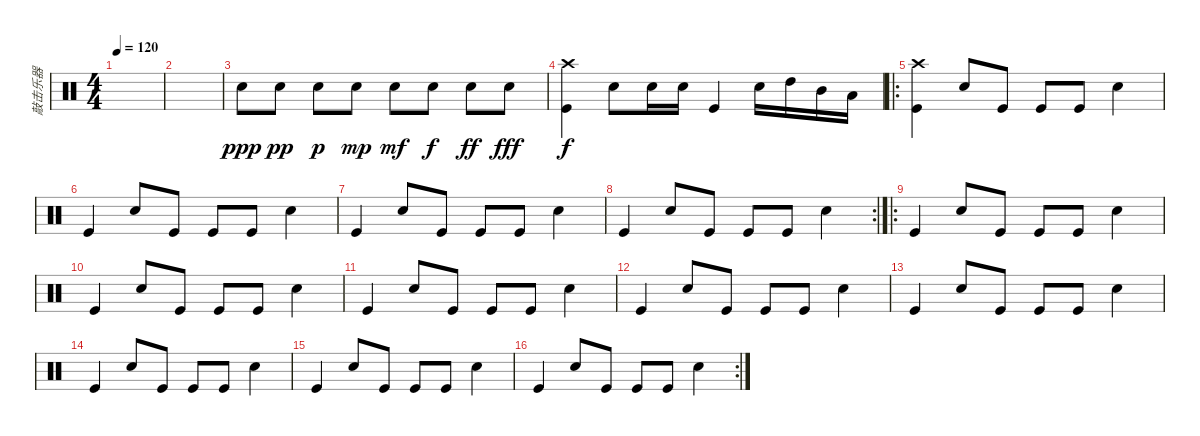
\track ("敲击乐器" "敲击乐器") {instrument percussion}
\staff {score}
\articulation defaults
\ts (4 4)
\tempo 120
\clef neutral
\ks c
|
|
"Snare (hit) 2".8{dy ppp} "Snare (hit) 2".8{dy pp} "Snare (hit) 2".8{dy p} "Snare (hit) 2".8{dy mp} "Snare (hit) 2".8{dy mf} "Snare (hit) 2".8{dy f} "Snare (hit) 2".8{dy ff} "Snare (hit) 2".8{dy fff} |
("Crash high (hit)" "Kick (hit)").4{dy f} "Snare (hit) 2".8 "Snare (hit) 2".16 "Snare (hit) 2".16 "Kick (hit)".4 "Snare (hit) 2".16 "High Tom (hit)".16 "Mid Tom (hit)".16 "Low Tom (hit)".16 |
\ro
("Crash high (hit)" "Kick (hit)").4 "Snare (hit) 2".8 "Kick (hit)".8 "Kick (hit)".8 "Kick (hit)".8 "Snare (hit) 2".4 |
"Kick (hit)".4 "Snare (hit) 2".8 "Kick (hit)".8 "Kick (hit)".8 "Kick (hit)".8 "Snare (hit) 2".4 |
"Kick (hit)".4 "Snare (hit) 2".8 "Kick (hit)".8 "Kick (hit)".8 "Kick (hit)".8 "Snare (hit) 2".4 |
\rc 2 "Kick (hit)".4 "Snare (hit) 2".8 "Kick (hit)".8 "Kick (hit)".8 "Kick (hit)".8 "Snare (hit) 2".4
|
\ro "Kick (hit)".4 "Snare (hit) 2".8 "Kick (hit)".8 "Kick (hit)".8 "Kick (hit)".8 "Snare (hit) 2".4
|
"Kick (hit)".4 "Snare (hit) 2".8 "Kick (hit)".8 "Kick (hit)".8 "Kick (hit)".8 "Snare (hit) 2".4 |
"Kick (hit)".4 "Snare (hit) 2".8 "Kick (hit)".8 "Kick (hit)".8 "Kick (hit)".8 "Snare (hit) 2".4 |
"Kick (hit)".4 "Snare (hit) 2".8 "Kick (hit)".8 "Kick (hit)".8 "Kick (hit)".8 "Snare (hit) 2".4 |
"Kick (hit)".4 "Snare (hit) 2".8 "Kick (hit)".8 "Kick (hit)".8 "Kick (hit)".8 "Snare (hit) 2".4 |
"Kick (hit)".4 "Snare (hit) 2".8 "Kick (hit)".8 "Kick (hit)".8 "Kick (hit)".8 "Snare (hit) 2".4 |
"Kick (hit)".4 "Snare (hit) 2".8 "Kick (hit)".8 "Kick (hit)".8 "Kick (hit)".8 "Snare (hit) 2".4 |
\rc 2 "Kick (hit)".4 "Snare (hit) 2".8 "Kick (hit)".8 "Kick (hit)".8 "Kick (hit)".8 "Snare (hit) 2".4
